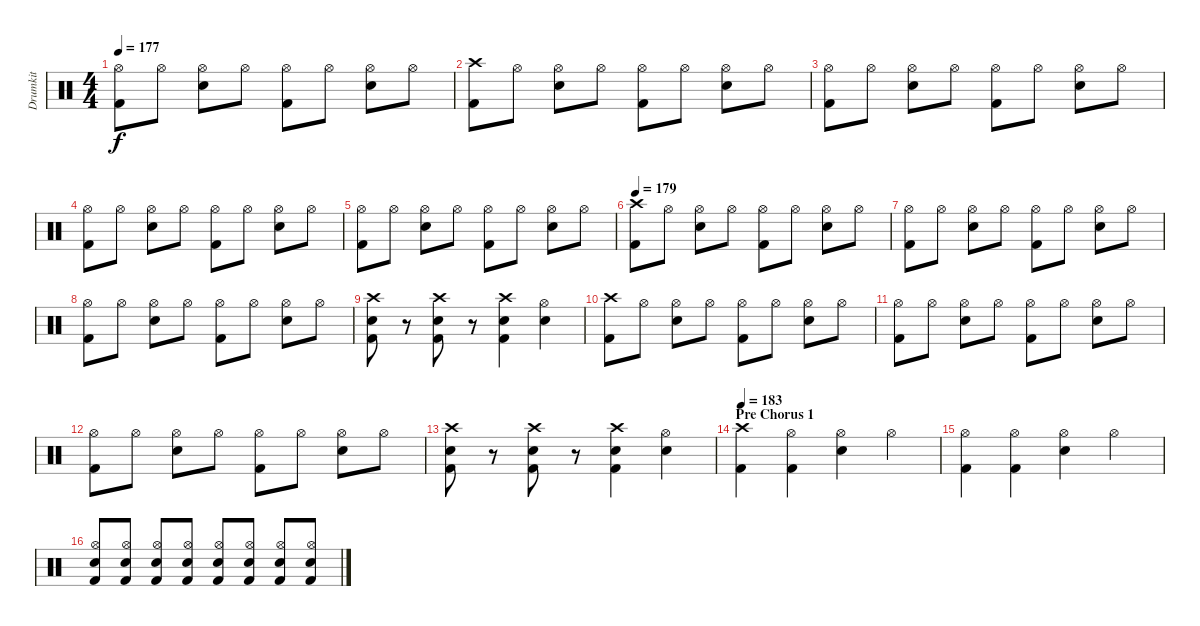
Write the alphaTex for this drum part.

\track ("Drumkit" "Drumkit") {instrument percussion}
\staff {score}
\articulation defaults
\ts (4 4)
\tempo 177
\clef neutral
\ks c
("Kick (hit) 2" "Hi-Hat (open)").8{dy f} "Hi-Hat (open)".8 ("Snare (hit) 2" "Hi-Hat (open)").8 "Hi-Hat (open)".8 ("Kick (hit) 2" "Hi-Hat (open)").8 "Hi-Hat (open)".8 ("Snare (hit) 2" "Hi-Hat (open)").8 "Hi-Hat (open)".8 |
("Crash high (hit)" "Kick (hit) 2").8 "Hi-Hat (open)".8 ("Snare (hit) 2" "Hi-Hat (open)").8 "Hi-Hat (open)".8 ("Kick (hit) 2" "Hi-Hat (open)").8 "Hi-Hat (open)".8 ("Snare (hit) 2" "Hi-Hat (open)").8 "Hi-Hat (open)".8 |
("Kick (hit) 2" "Hi-Hat (open)").8 "Hi-Hat (open)".8 ("Snare (hit) 2" "Hi-Hat (open)").8 "Hi-Hat (open)".8 ("Kick (hit) 2" "Hi-Hat (open)").8 "Hi-Hat (open)".8 ("Snare (hit) 2" "Hi-Hat (open)").8 "Hi-Hat (open)".8 |
("Kick (hit) 2" "Hi-Hat (open)").8 "Hi-Hat (open)".8 ("Snare (hit) 2" "Hi-Hat (open)").8 "Hi-Hat (open)".8 ("Kick (hit) 2" "Hi-Hat (open)").8 "Hi-Hat (open)".8 ("Snare (hit) 2" "Hi-Hat (open)").8 "Hi-Hat (open)".8 |
("Kick (hit) 2" "Hi-Hat (open)").8 "Hi-Hat (open)".8 ("Snare (hit) 2" "Hi-Hat (open)").8 "Hi-Hat (open)".8 ("Kick (hit) 2" "Hi-Hat (open)").8 "Hi-Hat (open)".8 ("Snare (hit) 2" "Hi-Hat (open)").8 "Hi-Hat (open)".8 |
\tempo 179
("Crash high (hit)" "Kick (hit) 2").8 "Hi-Hat (open)".8 ("Snare (hit) 2" "Hi-Hat (open)").8 "Hi-Hat (open)".8 ("Kick (hit) 2" "Hi-Hat (open)").8 "Hi-Hat (open)".8 ("Snare (hit) 2" "Hi-Hat (open)").8 "Hi-Hat (open)".8 |
("Kick (hit) 2" "Hi-Hat (open)").8 "Hi-Hat (open)".8 ("Snare (hit) 2" "Hi-Hat (open)").8 "Hi-Hat (open)".8 ("Kick (hit) 2" "Hi-Hat (open)").8 "Hi-Hat (open)".8 ("Snare (hit) 2" "Hi-Hat (open)").8 "Hi-Hat (open)".8 |
("Kick (hit) 2" "Hi-Hat (open)").8 "Hi-Hat (open)".8 ("Snare (hit) 2" "Hi-Hat (open)").8 "Hi-Hat (open)".8 ("Kick (hit) 2" "Hi-Hat (open)").8 "Hi-Hat (open)".8 ("Snare (hit) 2" "Hi-Hat (open)").8 "Hi-Hat (open)".8 |
("Snare (hit) 2" "Kick (hit) 2" "Crash high (hit)").8 r.8 ("Snare (hit) 2" "Kick (hit) 2" "Crash high (hit)").8 r.8 ("Snare (hit) 2" "Kick (hit) 2" "Crash high (hit)").4 ("Snare (hit) 2" "Hi-Hat (open)").4 |
("Crash high (hit)" "Kick (hit) 2").8 "Hi-Hat (open)".8 ("Snare (hit) 2" "Hi-Hat (open)").8 "Hi-Hat (open)".8 ("Kick (hit) 2" "Hi-Hat (open)").8 "Hi-Hat (open)".8 ("Snare (hit) 2" "Hi-Hat (open)").8 "Hi-Hat (open)".8 |
("Kick (hit) 2" "Hi-Hat (open)").8 "Hi-Hat (open)".8 ("Snare (hit) 2" "Hi-Hat (open)").8 "Hi-Hat (open)".8 ("Kick (hit) 2" "Hi-Hat (open)").8 "Hi-Hat (open)".8 ("Snare (hit) 2" "Hi-Hat (open)").8 "Hi-Hat (open)".8 |
("Kick (hit) 2" "Hi-Hat (open)").8 "Hi-Hat (open)".8 ("Snare (hit) 2" "Hi-Hat (open)").8 "Hi-Hat (open)".8 ("Kick (hit) 2" "Hi-Hat (open)").8 "Hi-Hat (open)".8 ("Snare (hit) 2" "Hi-Hat (open)").8 "Hi-Hat (open)".8 |
("Snare (hit) 2" "Kick (hit) 2" "Crash high (hit)").8 r.8 ("Snare (hit) 2" "Kick (hit) 2" "Crash high (hit)").8 r.8 ("Snare (hit) 2" "Kick (hit) 2" "Crash high (hit)").4 ("Snare (hit) 2" "Hi-Hat (open)").4 |
\section ("" "Pre Chorus 1")
\tempo 183
("Crash high (hit)" "Kick (hit) 2").4 ("Kick (hit) 2" "Hi-Hat (open)").4 ("Snare (hit) 2" "Hi-Hat (open)").4 "Hi-Hat (open)".4 |
("Kick (hit) 2" "Hi-Hat (open)").4 ("Kick (hit) 2" "Hi-Hat (open)").4 ("Snare (hit) 2" "Hi-Hat (open)").4 "Hi-Hat (open)".4 |
("Kick (hit) 2" "Snare (hit) 2" "Hi-Hat (open)").8 ("Snare (hit) 2" "Kick (hit) 2" "Hi-Hat (open)").8 ("Kick (hit) 2" "Snare (hit) 2" "Hi-Hat (open)").8 ("Snare (hit) 2" "Kick (hit) 2" "Hi-Hat (open)").8 ("Kick (hit) 2" "Snare (hit) 2" "Hi-Hat (open)").8 ("Snare (hit) 2" "Kick (hit) 2" "Hi-Hat (open)").8 ("Kick (hit) 2" "Snare (hit) 2" "Hi-Hat (open)").8 ("Snare (hit) 2" "Kick (hit) 2" "Hi-Hat (open)").8
